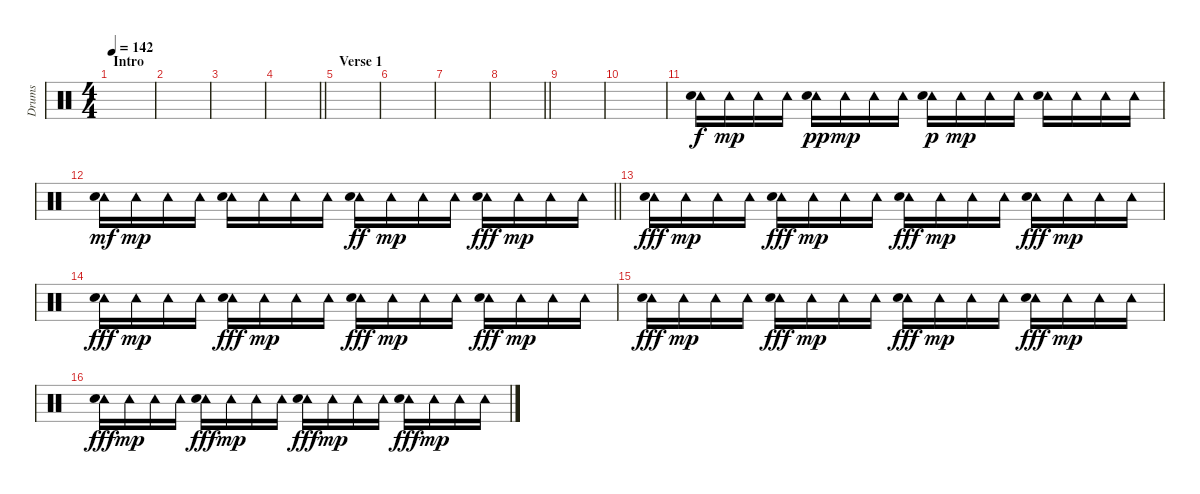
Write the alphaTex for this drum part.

\track ("Drums" "Drums") {instrument percussion}
\staff {score}
\articulation defaults
\ts (4 4)
\section ("" "Intro")
\tempo 142
\clef neutral
\ks c
|
|
|
\barLineRight lightlight
|
\section ("" "Verse 1")
|
|
|
\barLineRight lightlight
|
|
|
("Tambourine (hit)" "Hand Clap (hit)").16 "Tambourine (hit)".16{dy mp} "Tambourine (hit)".16 "Tambourine (hit)".16 ("Tambourine (hit)" "Hand Clap (hit)").16{dy pp} "Tambourine (hit)".16{dy mp} "Tambourine (hit)".16 "Tambourine (hit)".16 ("Tambourine (hit)" "Hand Clap (hit)").16{dy p} "Tambourine (hit)".16{dy mp} "Tambourine (hit)".16 "Tambourine (hit)".16 ("Tambourine (hit)" "Hand Clap (hit)").16 "Tambourine (hit)".16 "Tambourine (hit)".16 "Tambourine (hit)".16 |
\barLineRight lightlight
("Tambourine (hit)" "Hand Clap (hit)").16{dy mf} "Tambourine (hit)".16{dy mp} "Tambourine (hit)".16 "Tambourine (hit)".16 ("Tambourine (hit)" "Hand Clap (hit)").16 "Tambourine (hit)".16 "Tambourine (hit)".16 "Tambourine (hit)".16 ("Tambourine (hit)" "Hand Clap (hit)").16{dy ff} "Tambourine (hit)".16{dy mp} "Tambourine (hit)".16 "Tambourine (hit)".16 ("Tambourine (hit)" "Hand Clap (hit)").16{dy fff} "Tambourine (hit)".16{dy mp} "Tambourine (hit)".16 "Tambourine (hit)".16 |
("Tambourine (hit)" "Hand Clap (hit)").16{dy fff} "Tambourine (hit)".16{dy mp} "Tambourine (hit)".16 "Tambourine (hit)".16 ("Tambourine (hit)" "Hand Clap (hit)").16{dy fff} "Tambourine (hit)".16{dy mp} "Tambourine (hit)".16 "Tambourine (hit)".16 ("Tambourine (hit)" "Hand Clap (hit)").16{dy fff} "Tambourine (hit)".16{dy mp} "Tambourine (hit)".16 "Tambourine (hit)".16 ("Tambourine (hit)" "Hand Clap (hit)").16{dy fff} "Tambourine (hit)".16{dy mp} "Tambourine (hit)".16 "Tambourine (hit)".16 |
("Tambourine (hit)" "Hand Clap (hit)").16{dy fff} "Tambourine (hit)".16{dy mp} "Tambourine (hit)".16 "Tambourine (hit)".16 ("Tambourine (hit)" "Hand Clap (hit)").16{dy fff} "Tambourine (hit)".16{dy mp} "Tambourine (hit)".16 "Tambourine (hit)".16 ("Tambourine (hit)" "Hand Clap (hit)").16{dy fff} "Tambourine (hit)".16{dy mp} "Tambourine (hit)".16 "Tambourine (hit)".16 ("Tambourine (hit)" "Hand Clap (hit)").16{dy fff} "Tambourine (hit)".16{dy mp} "Tambourine (hit)".16 "Tambourine (hit)".16 |
("Tambourine (hit)" "Hand Clap (hit)").16{dy fff} "Tambourine (hit)".16{dy mp} "Tambourine (hit)".16 "Tambourine (hit)".16 ("Tambourine (hit)" "Hand Clap (hit)").16{dy fff} "Tambourine (hit)".16{dy mp} "Tambourine (hit)".16 "Tambourine (hit)".16 ("Tambourine (hit)" "Hand Clap (hit)").16{dy fff} "Tambourine (hit)".16{dy mp} "Tambourine (hit)".16 "Tambourine (hit)".16 ("Tambourine (hit)" "Hand Clap (hit)").16{dy fff} "Tambourine (hit)".16{dy mp} "Tambourine (hit)".16 "Tambourine (hit)".16 |
("Tambourine (hit)" "Hand Clap (hit)").16{dy fff} "Tambourine (hit)".16{dy mp} "Tambourine (hit)".16 "Tambourine (hit)".16 ("Tambourine (hit)" "Hand Clap (hit)").16{dy fff} "Tambourine (hit)".16{dy mp} "Tambourine (hit)".16 "Tambourine (hit)".16 ("Tambourine (hit)" "Hand Clap (hit)").16{dy fff} "Tambourine (hit)".16{dy mp} "Tambourine (hit)".16 "Tambourine (hit)".16 ("Tambourine (hit)" "Hand Clap (hit)").16{dy fff} "Tambourine (hit)".16{dy mp} "Tambourine (hit)".16 "Tambourine (hit)".16
